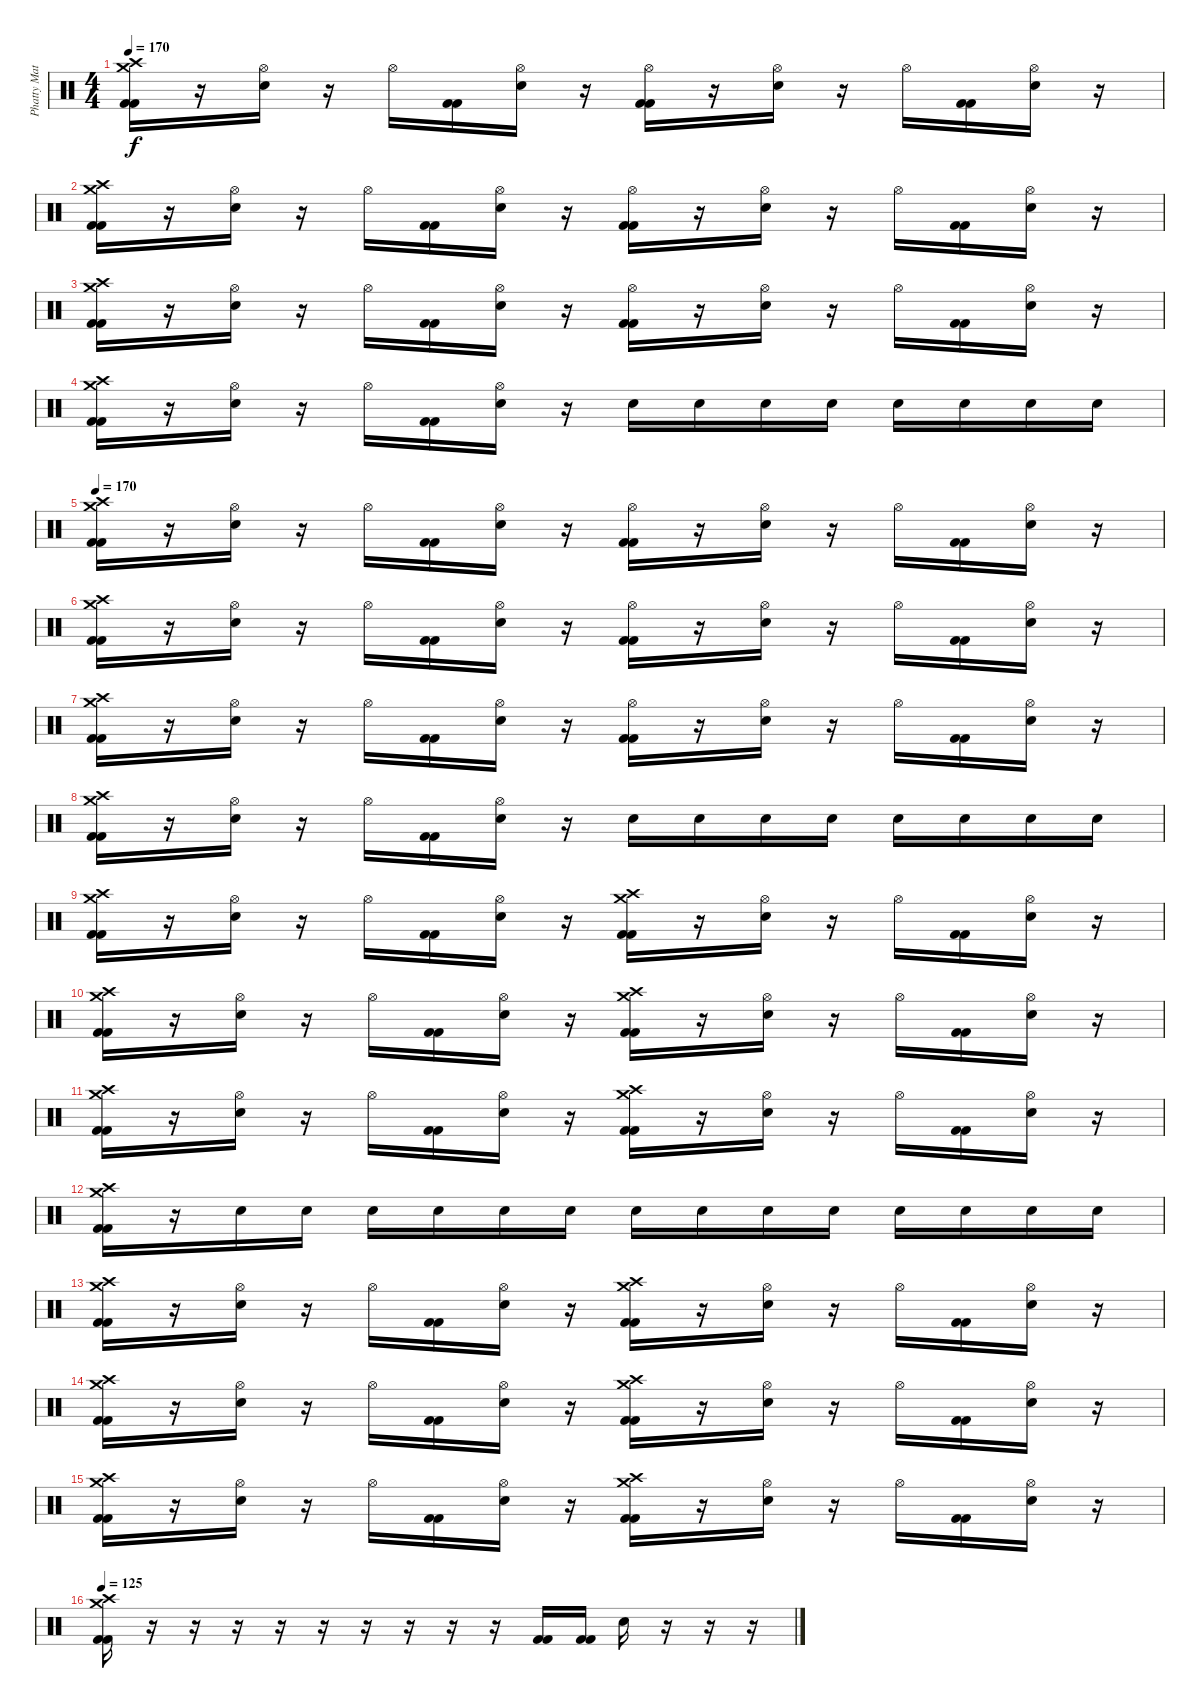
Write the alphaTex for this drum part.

\track ("Phatty Matty Withrow (Drums)" "Phatty Mat") {instrument percussion}
\staff {score}
\articulation defaults
\ts (4 4)
\tempo 170
\clef neutral
\ks c
("Crash medium (hit)" "Crash high (hit)" "Kick (hit) 2" "Kick (hit) 2").16{dy f} r.16 ("Hi-Hat (open)" "Electric Snare (hit)").16 r.16 "Hi-Hat (open)".16 ("Kick (hit) 2" "Kick (hit) 2").16 ("Hi-Hat (open)" "Electric Snare (hit)").16 r.16 ("Hi-Hat (open)" "Kick (hit) 2" "Kick (hit) 2").16 r.16 ("Hi-Hat (open)" "Electric Snare (hit)").16 r.16 "Hi-Hat (open)".16 ("Kick (hit) 2" "Kick (hit) 2").16 ("Hi-Hat (open)" "Electric Snare (hit)").16 r.16 |
("Crash medium (hit)" "Crash high (hit)" "Kick (hit) 2" "Kick (hit) 2").16 r.16 ("Hi-Hat (open)" "Electric Snare (hit)").16 r.16 "Hi-Hat (open)".16 ("Kick (hit) 2" "Kick (hit) 2").16 ("Hi-Hat (open)" "Electric Snare (hit)").16 r.16 ("Hi-Hat (open)" "Kick (hit) 2" "Kick (hit) 2").16 r.16 ("Hi-Hat (open)" "Electric Snare (hit)").16 r.16 "Hi-Hat (open)".16 ("Kick (hit) 2" "Kick (hit) 2").16 ("Hi-Hat (open)" "Electric Snare (hit)").16 r.16 |
("Crash medium (hit)" "Crash high (hit)" "Kick (hit) 2" "Kick (hit) 2").16 r.16 ("Hi-Hat (open)" "Electric Snare (hit)").16 r.16 "Hi-Hat (open)".16 ("Kick (hit) 2" "Kick (hit) 2").16 ("Hi-Hat (open)" "Electric Snare (hit)").16 r.16 ("Hi-Hat (open)" "Kick (hit) 2" "Kick (hit) 2").16 r.16 ("Hi-Hat (open)" "Electric Snare (hit)").16 r.16 "Hi-Hat (open)".16 ("Kick (hit) 2" "Kick (hit) 2").16 ("Hi-Hat (open)" "Electric Snare (hit)").16 r.16 |
("Crash medium (hit)" "Crash high (hit)" "Kick (hit) 2" "Kick (hit) 2").16 r.16 ("Hi-Hat (open)" "Electric Snare (hit)").16 r.16 "Hi-Hat (open)".16 ("Kick (hit) 2" "Kick (hit) 2").16 ("Hi-Hat (open)" "Electric Snare (hit)").16 r.16 "Electric Snare (hit)".16 "Electric Snare (hit)".16 "Electric Snare (hit)".16 "Electric Snare (hit)".16 "Electric Snare (hit)".16 "Electric Snare (hit)".16 "Electric Snare (hit)".16 "Electric Snare (hit)".16 |
\tempo 170
("Crash medium (hit)" "Crash high (hit)" "Kick (hit) 2" "Kick (hit) 2").16 r.16 ("Hi-Hat (open)" "Electric Snare (hit)").16 r.16 "Hi-Hat (open)".16 ("Kick (hit) 2" "Kick (hit) 2").16 ("Hi-Hat (open)" "Electric Snare (hit)").16 r.16 ("Hi-Hat (open)" "Kick (hit) 2" "Kick (hit) 2").16 r.16 ("Hi-Hat (open)" "Electric Snare (hit)").16 r.16 "Hi-Hat (open)".16 ("Kick (hit) 2" "Kick (hit) 2").16 ("Hi-Hat (open)" "Electric Snare (hit)").16 r.16 |
("Crash medium (hit)" "Crash high (hit)" "Kick (hit) 2" "Kick (hit) 2").16 r.16 ("Hi-Hat (open)" "Electric Snare (hit)").16 r.16 "Hi-Hat (open)".16 ("Kick (hit) 2" "Kick (hit) 2").16 ("Hi-Hat (open)" "Electric Snare (hit)").16 r.16 ("Hi-Hat (open)" "Kick (hit) 2" "Kick (hit) 2").16 r.16 ("Hi-Hat (open)" "Electric Snare (hit)").16 r.16 "Hi-Hat (open)".16 ("Kick (hit) 2" "Kick (hit) 2").16 ("Hi-Hat (open)" "Electric Snare (hit)").16 r.16 |
("Crash medium (hit)" "Crash high (hit)" "Kick (hit) 2" "Kick (hit) 2").16 r.16 ("Hi-Hat (open)" "Electric Snare (hit)").16 r.16 "Hi-Hat (open)".16 ("Kick (hit) 2" "Kick (hit) 2").16 ("Hi-Hat (open)" "Electric Snare (hit)").16 r.16 ("Hi-Hat (open)" "Kick (hit) 2" "Kick (hit) 2").16 r.16 ("Hi-Hat (open)" "Electric Snare (hit)").16 r.16 "Hi-Hat (open)".16 ("Kick (hit) 2" "Kick (hit) 2").16 ("Hi-Hat (open)" "Electric Snare (hit)").16 r.16 |
("Crash medium (hit)" "Crash high (hit)" "Kick (hit) 2" "Kick (hit) 2").16 r.16 ("Hi-Hat (open)" "Electric Snare (hit)").16 r.16 "Hi-Hat (open)".16 ("Kick (hit) 2" "Kick (hit) 2").16 ("Hi-Hat (open)" "Electric Snare (hit)").16 r.16 "Electric Snare (hit)".16 "Electric Snare (hit)".16 "Electric Snare (hit)".16 "Electric Snare (hit)".16 "Electric Snare (hit)".16 "Electric Snare (hit)".16 "Electric Snare (hit)".16 "Electric Snare (hit)".16 |
("Crash medium (hit)" "Crash high (hit)" "Kick (hit) 2" "Kick (hit) 2").16 r.16 ("Hi-Hat (open)" "Electric Snare (hit)").16 r.16 "Hi-Hat (open)".16 ("Kick (hit) 2" "Kick (hit) 2").16 ("Hi-Hat (open)" "Electric Snare (hit)").16 r.16 ("Crash medium (hit)" "Crash high (hit)" "Kick (hit) 2" "Kick (hit) 2").16 r.16 ("Hi-Hat (open)" "Electric Snare (hit)").16 r.16 "Hi-Hat (open)".16 ("Kick (hit) 2" "Kick (hit) 2").16 ("Hi-Hat (open)" "Electric Snare (hit)").16 r.16 |
("Crash medium (hit)" "Crash high (hit)" "Kick (hit) 2" "Kick (hit) 2").16 r.16 ("Hi-Hat (open)" "Electric Snare (hit)").16 r.16 "Hi-Hat (open)".16 ("Kick (hit) 2" "Kick (hit) 2").16 ("Hi-Hat (open)" "Electric Snare (hit)").16 r.16 ("Crash medium (hit)" "Crash high (hit)" "Kick (hit) 2" "Kick (hit) 2").16 r.16 ("Hi-Hat (open)" "Electric Snare (hit)").16 r.16 "Hi-Hat (open)".16 ("Kick (hit) 2" "Kick (hit) 2").16 ("Hi-Hat (open)" "Electric Snare (hit)").16 r.16 |
("Crash medium (hit)" "Crash high (hit)" "Kick (hit) 2" "Kick (hit) 2").16 r.16 ("Hi-Hat (open)" "Electric Snare (hit)").16 r.16 "Hi-Hat (open)".16 ("Kick (hit) 2" "Kick (hit) 2").16 ("Hi-Hat (open)" "Electric Snare (hit)").16 r.16 ("Crash medium (hit)" "Crash high (hit)" "Kick (hit) 2" "Kick (hit) 2").16 r.16 ("Hi-Hat (open)" "Electric Snare (hit)").16 r.16 "Hi-Hat (open)".16 ("Kick (hit) 2" "Kick (hit) 2").16 ("Hi-Hat (open)" "Electric Snare (hit)").16 r.16 |
("Crash medium (hit)" "Crash high (hit)" "Kick (hit) 2" "Kick (hit) 2").16 r.16 "Electric Snare (hit)".16 "Electric Snare (hit)".16 "Electric Snare (hit)".16 "Electric Snare (hit)".16 "Electric Snare (hit)".16 "Electric Snare (hit)".16 "Electric Snare (hit)".16 "Electric Snare (hit)".16 "Electric Snare (hit)".16 "Electric Snare (hit)".16 "Electric Snare (hit)".16 "Electric Snare (hit)".16 "Electric Snare (hit)".16 "Electric Snare (hit)".16 |
("Crash medium (hit)" "Crash high (hit)" "Kick (hit) 2" "Kick (hit) 2").16 r.16 ("Hi-Hat (open)" "Electric Snare (hit)").16 r.16 "Hi-Hat (open)".16 ("Kick (hit) 2" "Kick (hit) 2").16 ("Hi-Hat (open)" "Electric Snare (hit)").16 r.16 ("Crash medium (hit)" "Crash high (hit)" "Kick (hit) 2" "Kick (hit) 2").16 r.16 ("Hi-Hat (open)" "Electric Snare (hit)").16 r.16 "Hi-Hat (open)".16 ("Kick (hit) 2" "Kick (hit) 2").16 ("Hi-Hat (open)" "Electric Snare (hit)").16 r.16 |
("Crash medium (hit)" "Crash high (hit)" "Kick (hit) 2" "Kick (hit) 2").16 r.16 ("Hi-Hat (open)" "Electric Snare (hit)").16 r.16 "Hi-Hat (open)".16 ("Kick (hit) 2" "Kick (hit) 2").16 ("Hi-Hat (open)" "Electric Snare (hit)").16 r.16 ("Crash medium (hit)" "Crash high (hit)" "Kick (hit) 2" "Kick (hit) 2").16 r.16 ("Hi-Hat (open)" "Electric Snare (hit)").16 r.16 "Hi-Hat (open)".16 ("Kick (hit) 2" "Kick (hit) 2").16 ("Hi-Hat (open)" "Electric Snare (hit)").16 r.16 |
("Crash medium (hit)" "Crash high (hit)" "Kick (hit) 2" "Kick (hit) 2").16 r.16 ("Hi-Hat (open)" "Electric Snare (hit)").16 r.16 "Hi-Hat (open)".16 ("Kick (hit) 2" "Kick (hit) 2").16 ("Hi-Hat (open)" "Electric Snare (hit)").16 r.16 ("Crash medium (hit)" "Crash high (hit)" "Kick (hit) 2" "Kick (hit) 2").16 r.16 ("Hi-Hat (open)" "Electric Snare (hit)").16 r.16 "Hi-Hat (open)".16 ("Kick (hit) 2" "Kick (hit) 2").16 ("Hi-Hat (open)" "Electric Snare (hit)").16 r.16 |
\tempo 125
("Crash medium (hit)" "Crash high (hit)" "Kick (hit) 2" "Kick (hit) 2").16 r.16 r.16 r.16 r.16 r.16 r.16 r.16 r.16 r.16 ("Kick (hit) 2" "Kick (hit) 2").16 ("Kick (hit) 2" "Kick (hit) 2").16 "Electric Snare (hit)".16 r.16 r.16 r.16
